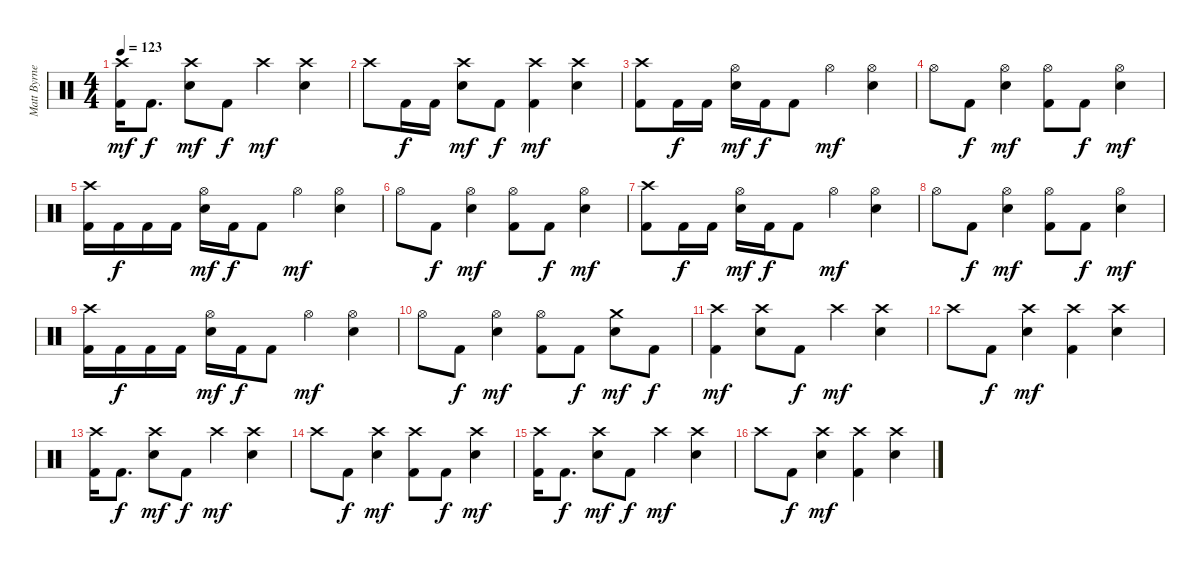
\track ("Matt Byrne" "Matt Byrne") {instrument percussion}
\staff {score}
\articulation defaults
\ts (4 4)
\tempo 123
\clef neutral
\ks c
("Crash high (hit)" "Kick (hit) 2").16{dy mf} "Kick (hit) 2".8{d dy f} ("Crash high (hit)" "Electric Snare (hit)").8{dy mf} "Kick (hit) 2".8{dy f} "Crash high (hit)".4{dy mf} ("Crash high (hit)" "Electric Snare (hit)").4 |
"Crash high (hit)".8 "Kick (hit) 2".16{dy f} "Kick (hit) 2".16 ("Crash high (hit)" "Electric Snare (hit)").8{dy mf} "Kick (hit) 2".8{dy f} ("Crash high (hit)" "Kick (hit) 2").4{dy mf} ("Crash high (hit)" "Electric Snare (hit)").4 |
("Crash high (hit)" "Kick (hit) 2").8 "Kick (hit) 2".16{dy f} "Kick (hit) 2".16 ("Hi-Hat (open)" "Electric Snare (hit)").16{dy mf} "Kick (hit) 2".16{dy f} "Kick (hit) 2".8 "Hi-Hat (open)".4{dy mf} ("Hi-Hat (open)" "Electric Snare (hit)").4 |
"Hi-Hat (open)".8 "Kick (hit) 2".8{dy f} ("Hi-Hat (open)" "Electric Snare (hit)").4{dy mf} ("Hi-Hat (open)" "Kick (hit) 2").8 "Kick (hit) 2".8{dy f} ("Hi-Hat (open)" "Electric Snare (hit)").4{dy mf} |
("Crash high (hit)" "Kick (hit) 2").16 "Kick (hit) 2".16{dy f} "Kick (hit) 2".16 "Kick (hit) 2".16 ("Hi-Hat (open)" "Electric Snare (hit)").16{dy mf} "Kick (hit) 2".16{dy f} "Kick (hit) 2".8 "Hi-Hat (open)".4{dy mf} ("Hi-Hat (open)" "Electric Snare (hit)").4 |
"Hi-Hat (open)".8 "Kick (hit) 2".8{dy f} ("Hi-Hat (open)" "Electric Snare (hit)").4{dy mf} ("Hi-Hat (open)" "Kick (hit) 2").8 "Kick (hit) 2".8{dy f} ("Hi-Hat (open)" "Electric Snare (hit)").4{dy mf} |
("Crash high (hit)" "Kick (hit) 2").8 "Kick (hit) 2".16{dy f} "Kick (hit) 2".16 ("Hi-Hat (open)" "Electric Snare (hit)").16{dy mf} "Kick (hit) 2".16{dy f} "Kick (hit) 2".8 "Hi-Hat (open)".4{dy mf} ("Hi-Hat (open)" "Electric Snare (hit)").4 |
"Hi-Hat (open)".8 "Kick (hit) 2".8{dy f} ("Hi-Hat (open)" "Electric Snare (hit)").4{dy mf} ("Hi-Hat (open)" "Kick (hit) 2").8 "Kick (hit) 2".8{dy f} ("Hi-Hat (open)" "Electric Snare (hit)").4{dy mf} |
("Crash high (hit)" "Kick (hit) 2").16 "Kick (hit) 2".16{dy f} "Kick (hit) 2".16 "Kick (hit) 2".16 ("Hi-Hat (open)" "Electric Snare (hit)").16{dy mf} "Kick (hit) 2".16{dy f} "Kick (hit) 2".8 "Hi-Hat (open)".4{dy mf} ("Hi-Hat (open)" "Electric Snare (hit)").4 |
"Hi-Hat (open)".8 "Kick (hit) 2".8{dy f} ("Hi-Hat (open)" "Electric Snare (hit)").4{dy mf} ("Hi-Hat (open)" "Kick (hit) 2").8 "Kick (hit) 2".8{dy f} ("Crash medium (hit)" "Electric Snare (hit)").8{dy mf} "Kick (hit) 2".8{dy f} |
("Crash high (hit)" "Kick (hit) 2").4{dy mf} ("Crash high (hit)" "Electric Snare (hit)").8 "Kick (hit) 2".8{dy f} "Crash high (hit)".4{dy mf} ("Crash high (hit)" "Electric Snare (hit)").4 |
"Crash high (hit)".8 "Kick (hit) 2".8{dy f} ("Crash high (hit)" "Electric Snare (hit)").4{dy mf} ("Crash high (hit)" "Kick (hit) 2").4 ("Crash high (hit)" "Electric Snare (hit)").4 |
("Crash high (hit)" "Kick (hit) 2").16 "Kick (hit) 2".8{d dy f} ("Crash high (hit)" "Electric Snare (hit)").8{dy mf} "Kick (hit) 2".8{dy f} "Crash high (hit)".4{dy mf} ("Crash high (hit)" "Electric Snare (hit)").4 |
"Crash high (hit)".8 "Kick (hit) 2".8{dy f} ("Crash high (hit)" "Electric Snare (hit)").4{dy mf} ("Crash high (hit)" "Kick (hit) 2").8 "Kick (hit) 2".8{dy f} ("Crash high (hit)" "Electric Snare (hit)").4{dy mf} |
("Crash high (hit)" "Kick (hit) 2").16 "Kick (hit) 2".8{d dy f} ("Crash high (hit)" "Electric Snare (hit)").8{dy mf} "Kick (hit) 2".8{dy f} "Crash high (hit)".4{dy mf} ("Crash high (hit)" "Electric Snare (hit)").4 |
"Crash high (hit)".8 "Kick (hit) 2".8{dy f} ("Crash high (hit)" "Electric Snare (hit)").4{dy mf} ("Crash high (hit)" "Kick (hit) 2").4 ("Crash high (hit)" "Electric Snare (hit)").4
